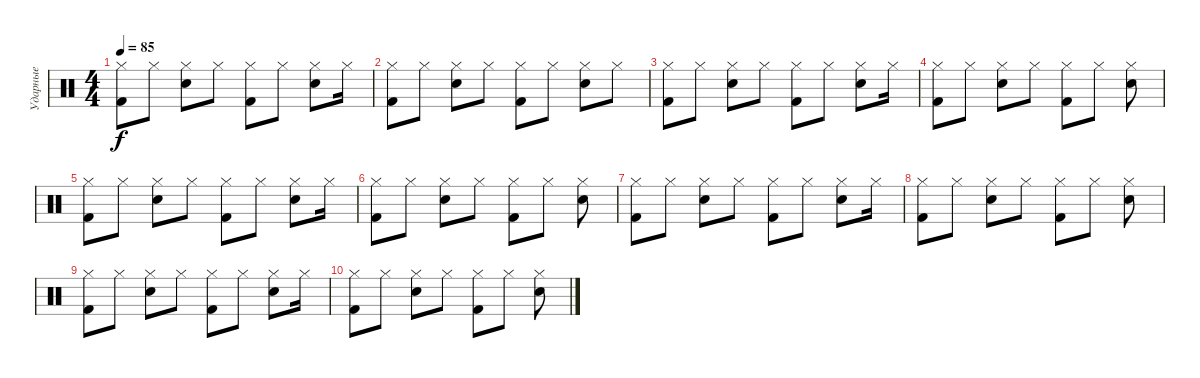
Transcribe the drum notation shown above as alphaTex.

\track ("Ударные" "Ударные") {instrument percussion}
\staff {score}
\articulation defaults
\ts (4 4)
\tempo 85
\clef neutral
\ks c
("Hi-Hat (closed)" "Kick (hit) 2").8{dy f} "Hi-Hat (closed)".8 ("Hi-Hat (closed)" "Snare (hit) 2").8 "Hi-Hat (closed)".8 ("Hi-Hat (closed)" "Kick (hit) 2").8 "Hi-Hat (closed)".8 ("Hi-Hat (closed)" "Snare (hit) 2").8 "Hi-Hat (closed)".16 |
("Hi-Hat (closed)" "Kick (hit) 2").8 "Hi-Hat (closed)".8 ("Hi-Hat (closed)" "Snare (hit) 2").8 "Hi-Hat (closed)".8 ("Hi-Hat (closed)" "Kick (hit) 2").8 "Hi-Hat (closed)".8 ("Hi-Hat (closed)" "Snare (hit) 2").8 "Hi-Hat (closed)".8 |
("Hi-Hat (closed)" "Kick (hit) 2").8 "Hi-Hat (closed)".8 ("Hi-Hat (closed)" "Snare (hit) 2").8 "Hi-Hat (closed)".8 ("Hi-Hat (closed)" "Kick (hit) 2").8 "Hi-Hat (closed)".8 ("Hi-Hat (closed)" "Snare (hit) 2").8 "Hi-Hat (closed)".16 |
("Hi-Hat (closed)" "Kick (hit) 2").8 "Hi-Hat (closed)".8 ("Hi-Hat (closed)" "Snare (hit) 2").8 "Hi-Hat (closed)".8 ("Hi-Hat (closed)" "Kick (hit) 2").8 "Hi-Hat (closed)".8 ("Hi-Hat (closed)" "Snare (hit) 2").8 |
("Hi-Hat (closed)" "Kick (hit) 2").8 "Hi-Hat (closed)".8 ("Hi-Hat (closed)" "Snare (hit) 2").8 "Hi-Hat (closed)".8 ("Hi-Hat (closed)" "Kick (hit) 2").8 "Hi-Hat (closed)".8 ("Hi-Hat (closed)" "Snare (hit) 2").8 "Hi-Hat (closed)".16 |
("Hi-Hat (closed)" "Kick (hit) 2").8 "Hi-Hat (closed)".8 ("Hi-Hat (closed)" "Snare (hit) 2").8 "Hi-Hat (closed)".8 ("Hi-Hat (closed)" "Kick (hit) 2").8 "Hi-Hat (closed)".8 ("Hi-Hat (closed)" "Snare (hit) 2").8 |
("Hi-Hat (closed)" "Kick (hit) 2").8 "Hi-Hat (closed)".8 ("Hi-Hat (closed)" "Snare (hit) 2").8 "Hi-Hat (closed)".8 ("Hi-Hat (closed)" "Kick (hit) 2").8 "Hi-Hat (closed)".8 ("Hi-Hat (closed)" "Snare (hit) 2").8 "Hi-Hat (closed)".16 |
("Hi-Hat (closed)" "Kick (hit) 2").8 "Hi-Hat (closed)".8 ("Hi-Hat (closed)" "Snare (hit) 2").8 "Hi-Hat (closed)".8 ("Hi-Hat (closed)" "Kick (hit) 2").8 "Hi-Hat (closed)".8 ("Hi-Hat (closed)" "Snare (hit) 2").8 |
("Hi-Hat (closed)" "Kick (hit) 2").8 "Hi-Hat (closed)".8 ("Hi-Hat (closed)" "Snare (hit) 2").8 "Hi-Hat (closed)".8 ("Hi-Hat (closed)" "Kick (hit) 2").8 "Hi-Hat (closed)".8 ("Hi-Hat (closed)" "Snare (hit) 2").8 "Hi-Hat (closed)".16 |
("Hi-Hat (closed)" "Kick (hit) 2").8 "Hi-Hat (closed)".8 ("Hi-Hat (closed)" "Snare (hit) 2").8 "Hi-Hat (closed)".8 ("Hi-Hat (closed)" "Kick (hit) 2").8 "Hi-Hat (closed)".8 ("Hi-Hat (closed)" "Snare (hit) 2").8
